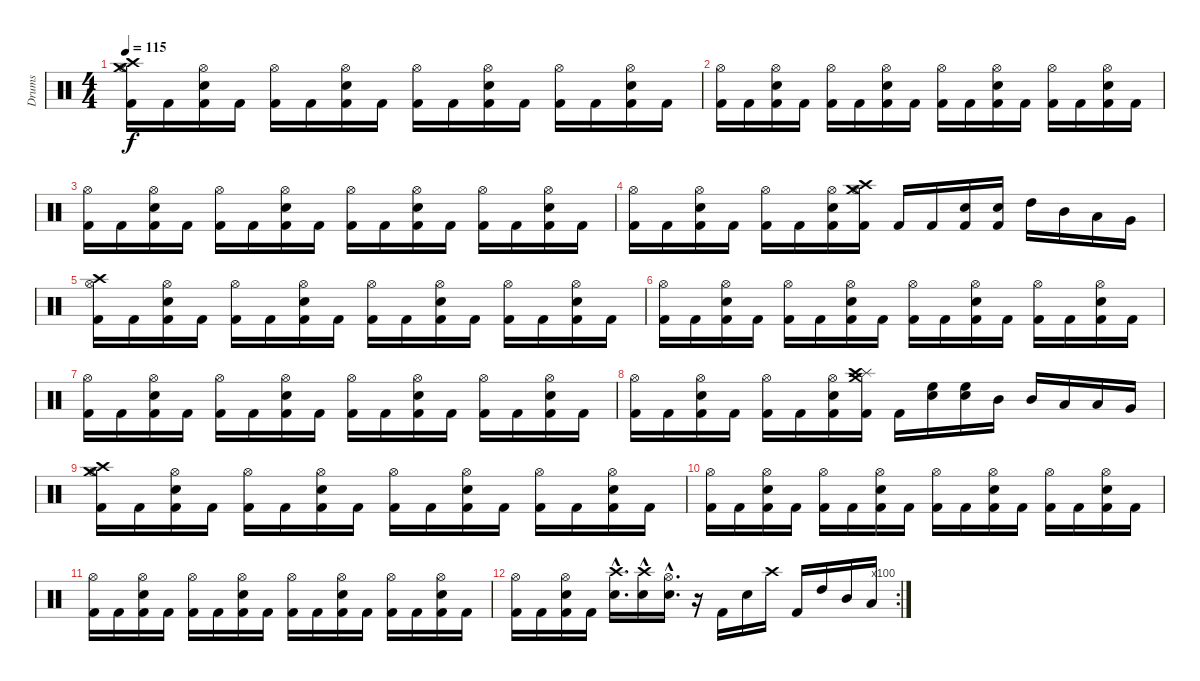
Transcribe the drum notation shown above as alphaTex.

\track ("Drums" "Drums") {instrument percussion}
\staff {score}
\articulation defaults
\ts (4 4)
\tempo 115
\clef neutral
\ks c
("Kick (hit) 2" "Crash high (hit)" "Hi-Hat (open)" "Crash medium (hit)").16{dy f} "Kick (hit) 2".16 ("Kick (hit) 2" "Electric Snare (hit)" "Hi-Hat (open)").16 "Kick (hit) 2".16 ("Kick (hit) 2" "Hi-Hat (open)").16 "Kick (hit) 2".16 ("Kick (hit) 2" "Electric Snare (hit)" "Hi-Hat (open)").16 "Kick (hit) 2".16 ("Kick (hit) 2" "Hi-Hat (open)").16 "Kick (hit) 2".16 ("Kick (hit) 2" "Electric Snare (hit)" "Hi-Hat (open)").16 "Kick (hit) 2".16 ("Kick (hit) 2" "Hi-Hat (open)").16 "Kick (hit) 2".16 ("Kick (hit) 2" "Electric Snare (hit)" "Hi-Hat (open)").16 "Kick (hit) 2".16 |
("Kick (hit) 2" "Hi-Hat (open)").16 "Kick (hit) 2".16 ("Kick (hit) 2" "Electric Snare (hit)" "Hi-Hat (open)").16 "Kick (hit) 2".16 ("Kick (hit) 2" "Hi-Hat (open)").16 "Kick (hit) 2".16 ("Kick (hit) 2" "Electric Snare (hit)" "Hi-Hat (open)").16 "Kick (hit) 2".16 ("Kick (hit) 2" "Hi-Hat (open)").16 "Kick (hit) 2".16 ("Kick (hit) 2" "Electric Snare (hit)" "Hi-Hat (open)").16 "Kick (hit) 2".16 ("Kick (hit) 2" "Hi-Hat (open)").16 "Kick (hit) 2".16 ("Kick (hit) 2" "Electric Snare (hit)" "Hi-Hat (open)").16 "Kick (hit) 2".16 |
("Kick (hit) 2" "Hi-Hat (open)").16 "Kick (hit) 2".16 ("Electric Snare (hit)" "Kick (hit) 2" "Hi-Hat (open)").16 "Kick (hit) 2".16 ("Kick (hit) 2" "Hi-Hat (open)").16 "Kick (hit) 2".16 ("Electric Snare (hit)" "Kick (hit) 2" "Hi-Hat (open)").16 "Kick (hit) 2".16 ("Kick (hit) 2" "Hi-Hat (open)").16 "Kick (hit) 2".16 ("Electric Snare (hit)" "Kick (hit) 2" "Hi-Hat (open)").16 "Kick (hit) 2".16 ("Kick (hit) 2" "Hi-Hat (open)").16 "Kick (hit) 2".16 ("Electric Snare (hit)" "Kick (hit) 2" "Hi-Hat (open)").16 "Kick (hit) 2".16 |
("Kick (hit) 2" "Hi-Hat (open)").16 "Kick (hit) 2".16 ("Electric Snare (hit)" "Kick (hit) 2" "Hi-Hat (open)").16 "Kick (hit) 2".16 ("Kick (hit) 2" "Hi-Hat (open)").16 "Kick (hit) 2".16 ("Kick (hit) 2" "Electric Snare (hit)" "Hi-Hat (open)").16 ("Kick (hit) 2" "Crash high (hit)" "Crash medium (hit)" "Hi-Hat (open)").16 "Kick (hit) 2".16 "Kick (hit) 2".16 ("Kick (hit) 2" "Electric Snare (hit)").16 ("Kick (hit) 2" "Electric Snare (hit)").16 "High Tom (hit)".16 "Mid Tom (hit)".16 "Low Tom (hit)".16 "Very Low Tom (hit)".16 |
("Kick (hit) 2" "Crash high (hit)" "Hi-Hat (open)").16 "Kick (hit) 2".16 ("Electric Snare (hit)" "Kick (hit) 2" "Hi-Hat (open)").16 "Kick (hit) 2".16 ("Kick (hit) 2" "Hi-Hat (open)").16 "Kick (hit) 2".16 ("Electric Snare (hit)" "Kick (hit) 2" "Hi-Hat (open)").16 "Kick (hit) 2".16 ("Kick (hit) 2" "Hi-Hat (open)").16 "Kick (hit) 2".16 ("Electric Snare (hit)" "Kick (hit) 2" "Hi-Hat (open)").16 "Kick (hit) 2".16 ("Kick (hit) 2" "Hi-Hat (open)").16 "Kick (hit) 2".16 ("Electric Snare (hit)" "Kick (hit) 2" "Hi-Hat (open)").16 "Kick (hit) 2".16 |
("Kick (hit) 2" "Hi-Hat (open)").16 "Kick (hit) 2".16 ("Electric Snare (hit)" "Kick (hit) 2" "Hi-Hat (open)").16 "Kick (hit) 2".16 ("Kick (hit) 2" "Hi-Hat (open)").16 "Kick (hit) 2".16 ("Electric Snare (hit)" "Kick (hit) 2" "Hi-Hat (open)").16 "Kick (hit) 2".16 ("Kick (hit) 2" "Hi-Hat (open)").16 "Kick (hit) 2".16 ("Electric Snare (hit)" "Kick (hit) 2" "Hi-Hat (open)").16 "Kick (hit) 2".16 ("Kick (hit) 2" "Hi-Hat (open)").16 "Kick (hit) 2".16 ("Electric Snare (hit)" "Kick (hit) 2" "Hi-Hat (open)").16 "Kick (hit) 2".16 |
("Kick (hit) 2" "Hi-Hat (open)").16 "Kick (hit) 2".16 ("Electric Snare (hit)" "Kick (hit) 2" "Hi-Hat (open)").16 "Kick (hit) 2".16 ("Kick (hit) 2" "Hi-Hat (open)").16 "Kick (hit) 2".16 ("Electric Snare (hit)" "Kick (hit) 2" "Hi-Hat (open)").16 "Kick (hit) 2".16 ("Kick (hit) 2" "Hi-Hat (open)").16 "Kick (hit) 2".16 ("Electric Snare (hit)" "Kick (hit) 2" "Hi-Hat (open)").16 "Kick (hit) 2".16 ("Kick (hit) 2" "Hi-Hat (open)").16 "Kick (hit) 2".16 ("Electric Snare (hit)" "Kick (hit) 2" "Hi-Hat (open)").16 "Kick (hit) 2".16 |
("Kick (hit) 2" "Hi-Hat (open)").16 "Kick (hit) 2".16 ("Kick (hit) 2" "Electric Snare (hit)" "Hi-Hat (open)").16 "Kick (hit) 2".16 ("Kick (hit) 2" "Hi-Hat (open)").16 "Kick (hit) 2".16 ("Kick (hit) 2" "Electric Snare (hit)" "Hi-Hat (open)").16 ("Kick (hit) 2" "Crash medium (hit)" "Splash (hit)" "Crash high (hit)").16 "Kick (hit) 2".16 ("Electric Snare (hit)" "High Floor Tom (hit)").16 ("Electric Snare (hit)" "High Floor Tom (hit)").16 "Mid Tom (hit)".16 "Mid Tom (hit)".16 "Low Tom (hit)".16 "Low Tom (hit)".16 "Very Low Tom (hit)".16 |
("Kick (hit) 2" "Hi-Hat (open)" "Crash high (hit)" "Crash medium (hit)").16 "Kick (hit) 2".16 ("Electric Snare (hit)" "Kick (hit) 2" "Hi-Hat (open)").16 "Kick (hit) 2".16 ("Kick (hit) 2" "Hi-Hat (open)").16 "Kick (hit) 2".16 ("Electric Snare (hit)" "Kick (hit) 2" "Hi-Hat (open)").16 "Kick (hit) 2".16 ("Kick (hit) 2" "Hi-Hat (open)").16 "Kick (hit) 2".16 ("Electric Snare (hit)" "Kick (hit) 2" "Hi-Hat (open)").16 "Kick (hit) 2".16 ("Kick (hit) 2" "Hi-Hat (open)").16 "Kick (hit) 2".16 ("Electric Snare (hit)" "Kick (hit) 2" "Hi-Hat (open)").16 "Kick (hit) 2".16 |
("Kick (hit) 2" "Hi-Hat (open)").16 "Kick (hit) 2".16 ("Electric Snare (hit)" "Kick (hit) 2" "Hi-Hat (open)").16 "Kick (hit) 2".16 ("Kick (hit) 2" "Hi-Hat (open)").16 "Kick (hit) 2".16 ("Electric Snare (hit)" "Kick (hit) 2" "Hi-Hat (open)").16 "Kick (hit) 2".16 ("Kick (hit) 2" "Hi-Hat (open)").16 "Kick (hit) 2".16 ("Electric Snare (hit)" "Kick (hit) 2" "Hi-Hat (open)").16 "Kick (hit) 2".16 ("Kick (hit) 2" "Hi-Hat (open)").16 "Kick (hit) 2".16 ("Electric Snare (hit)" "Kick (hit) 2" "Hi-Hat (open)").16 "Kick (hit) 2".16 |
("Kick (hit) 2" "Hi-Hat (open)").16 "Kick (hit) 2".16 ("Electric Snare (hit)" "Kick (hit) 2" "Hi-Hat (open)").16 "Kick (hit) 2".16 ("Kick (hit) 2" "Hi-Hat (open)").16 "Kick (hit) 2".16 ("Electric Snare (hit)" "Kick (hit) 2" "Hi-Hat (open)").16 "Kick (hit) 2".16 ("Kick (hit) 2" "Hi-Hat (open)").16 "Kick (hit) 2".16 ("Electric Snare (hit)" "Kick (hit) 2" "Hi-Hat (open)").16 "Kick (hit) 2".16 ("Kick (hit) 2" "Hi-Hat (open)").16 "Kick (hit) 2".16 ("Electric Snare (hit)" "Kick (hit) 2" "Hi-Hat (open)").16 "Kick (hit) 2".16 |
\rc 100
("Kick (hit) 2" "Hi-Hat (open)").16 "Kick (hit) 2".16 ("Kick (hit) 2" "Electric Snare (hit)" "Hi-Hat (open)").16 "Kick (hit) 2".16 ("Electric Snare (hit)"{hac} "Crash high (hit)"{hac}).16{d} ("Electric Snare (hit)"{hac} "Crash high (hit)").16 ("Electric Snare (hit)"{hac} "Hi-Hat (open)"{hac}).16{d} r.16 "Kick (hit) 2".16 "Electric Snare (hit)".16 "Crash high (hit)".16 "Kick (hit) 2".16 "High Tom (hit)".16 "Mid Tom (hit)".16 "Low Tom (hit)".16
